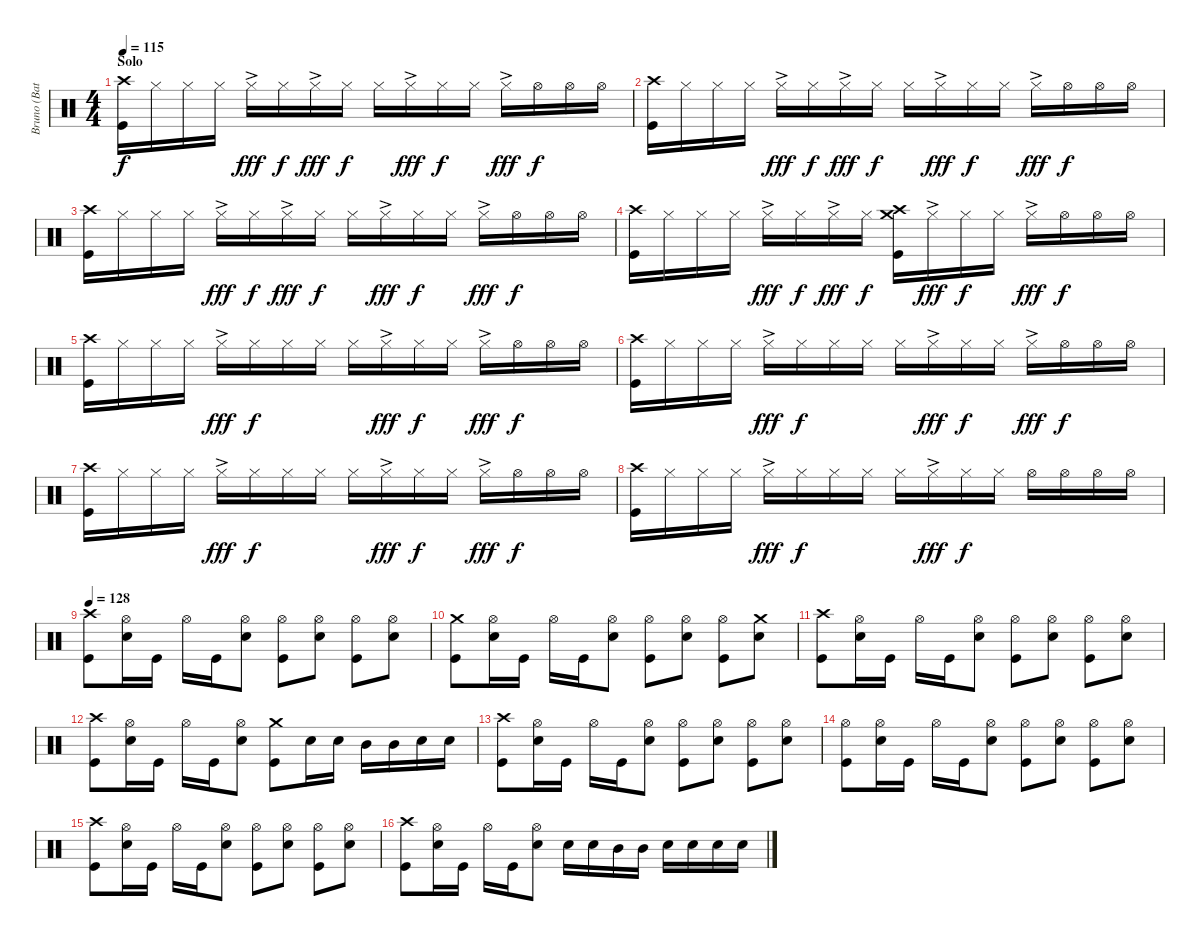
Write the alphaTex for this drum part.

\track ("Bruno (Bateria)" "Bruno (Bat") {instrument percussion}
\staff {score}
\articulation defaults
\ts (4 4)
\section ("" "Solo")
\tempo 115
\clef neutral
\ks c
("Crash high (hit)" "Kick (hit)").16{dy f} "Hi-Hat (closed)".16 "Hi-Hat (closed)".16 "Hi-Hat (closed)".16 "Hi-Hat (closed)"{ac}.16{dy fff} "Hi-Hat (closed)".16{dy f} "Hi-Hat (closed)"{ac}.16{dy fff} "Hi-Hat (closed)".16{dy f} "Hi-Hat (closed)".16 "Hi-Hat (closed)"{ac}.16{dy fff} "Hi-Hat (closed)".16{dy f} "Hi-Hat (closed)".16 "Hi-Hat (closed)"{ac}.16{dy fff} "Hi-Hat (open)".16{dy f} "Hi-Hat (open)".16 "Hi-Hat (open)".16 |
("Crash high (hit)" "Kick (hit)").16 "Hi-Hat (closed)".16 "Hi-Hat (closed)".16 "Hi-Hat (closed)".16 "Hi-Hat (closed)"{ac}.16{dy fff} "Hi-Hat (closed)".16{dy f} "Hi-Hat (closed)"{ac}.16{dy fff} "Hi-Hat (closed)".16{dy f} "Hi-Hat (closed)".16 "Hi-Hat (closed)"{ac}.16{dy fff} "Hi-Hat (closed)".16{dy f} "Hi-Hat (closed)".16 "Hi-Hat (closed)"{ac}.16{dy fff} "Hi-Hat (open)".16{dy f} "Hi-Hat (open)".16 "Hi-Hat (open)".16 |
("Crash high (hit)" "Kick (hit)").16 "Hi-Hat (closed)".16 "Hi-Hat (closed)".16 "Hi-Hat (closed)".16 "Hi-Hat (closed)"{ac}.16{dy fff} "Hi-Hat (closed)".16{dy f} "Hi-Hat (closed)"{ac}.16{dy fff} "Hi-Hat (closed)".16{dy f} "Hi-Hat (closed)".16 "Hi-Hat (closed)"{ac}.16{dy fff} "Hi-Hat (closed)".16{dy f} "Hi-Hat (closed)".16 "Hi-Hat (closed)"{ac}.16{dy fff} "Hi-Hat (open)".16{dy f} "Hi-Hat (open)".16 "Hi-Hat (open)".16 |
("Crash high (hit)" "Kick (hit)").16 "Hi-Hat (closed)".16 "Hi-Hat (closed)".16 "Hi-Hat (closed)".16 "Hi-Hat (closed)"{ac}.16{dy fff} "Hi-Hat (closed)".16{dy f} "Hi-Hat (closed)"{ac}.16{dy fff} "Hi-Hat (closed)".16{dy f} ("Crash high (hit)" "Crash medium (hit)" "Kick (hit)").16 "Hi-Hat (closed)"{ac}.16{dy fff} "Hi-Hat (closed)".16{dy f} "Hi-Hat (closed)".16 "Hi-Hat (closed)"{ac}.16{dy fff} "Hi-Hat (open)".16{dy f} "Hi-Hat (open)".16 "Hi-Hat (open)".16 |
("Crash high (hit)" "Kick (hit)").16 "Hi-Hat (closed)".16 "Hi-Hat (closed)".16 "Hi-Hat (closed)".16 "Hi-Hat (closed)"{ac}.16{dy fff} "Hi-Hat (closed)".16{dy f} "Hi-Hat (closed)".16 "Hi-Hat (closed)".16 "Hi-Hat (closed)".16 "Hi-Hat (closed)"{ac}.16{dy fff} "Hi-Hat (closed)".16{dy f} "Hi-Hat (closed)".16 "Hi-Hat (closed)"{ac}.16{dy fff} "Hi-Hat (open)".16{dy f} "Hi-Hat (open)".16 "Hi-Hat (open)".16 |
("Crash high (hit)" "Kick (hit)").16 "Hi-Hat (closed)".16 "Hi-Hat (closed)".16 "Hi-Hat (closed)".16 "Hi-Hat (closed)"{ac}.16{dy fff} "Hi-Hat (closed)".16{dy f} "Hi-Hat (closed)".16 "Hi-Hat (closed)".16 "Hi-Hat (closed)".16 "Hi-Hat (closed)"{ac}.16{dy fff} "Hi-Hat (closed)".16{dy f} "Hi-Hat (closed)".16 "Hi-Hat (closed)"{ac}.16{dy fff} "Hi-Hat (open)".16{dy f} "Hi-Hat (open)".16 "Hi-Hat (open)".16 |
("Crash high (hit)" "Kick (hit)").16 "Hi-Hat (closed)".16 "Hi-Hat (closed)".16 "Hi-Hat (closed)".16 "Hi-Hat (closed)"{ac}.16{dy fff} "Hi-Hat (closed)".16{dy f} "Hi-Hat (closed)".16 "Hi-Hat (closed)".16 "Hi-Hat (closed)".16 "Hi-Hat (closed)"{ac}.16{dy fff} "Hi-Hat (closed)".16{dy f} "Hi-Hat (closed)".16 "Hi-Hat (closed)"{ac}.16{dy fff} "Hi-Hat (open)".16{dy f} "Hi-Hat (open)".16 "Hi-Hat (open)".16 |
("Crash high (hit)" "Kick (hit)").16 "Hi-Hat (closed)".16 "Hi-Hat (closed)".16 "Hi-Hat (closed)".16 "Hi-Hat (closed)"{ac}.16{dy fff} "Hi-Hat (closed)".16{dy f} "Hi-Hat (closed)".16 "Hi-Hat (closed)".16 "Hi-Hat (closed)".16 "Hi-Hat (closed)"{ac}.16{dy fff} "Hi-Hat (closed)".16{dy f} "Hi-Hat (closed)".16 "Hi-Hat (open)".16 "Hi-Hat (open)".16 "Hi-Hat (open)".16 "Hi-Hat (open)".16 |
\tempo 128
("Crash high (hit)" "Kick (hit)").8 ("Hi-Hat (open)" "Electric Snare (hit)").16 "Kick (hit)".16 "Hi-Hat (open)".16 "Kick (hit)".16 ("Hi-Hat (open)" "Electric Snare (hit)").8 ("Hi-Hat (open)" "Kick (hit)").8 ("Hi-Hat (open)" "Electric Snare (hit)").8 ("Hi-Hat (open)" "Kick (hit)").8 ("Hi-Hat (open)" "Electric Snare (hit)").8 |
("Crash medium (hit)" "Kick (hit)").8 ("Hi-Hat (open)" "Electric Snare (hit)").16 "Kick (hit)".16 "Hi-Hat (open)".16 "Kick (hit)".16 ("Hi-Hat (open)" "Electric Snare (hit)").8 ("Hi-Hat (open)" "Kick (hit)").8 ("Hi-Hat (open)" "Electric Snare (hit)").8 ("Hi-Hat (open)" "Kick (hit)").8 ("Crash medium (hit)" "Electric Snare (hit)").8 |
("Crash high (hit)" "Kick (hit)").8 ("Hi-Hat (open)" "Electric Snare (hit)").16 "Kick (hit)".16 "Hi-Hat (open)".16 "Kick (hit)".16 ("Hi-Hat (open)" "Electric Snare (hit)").8 ("Hi-Hat (open)" "Kick (hit)").8 ("Hi-Hat (open)" "Electric Snare (hit)").8 ("Hi-Hat (open)" "Kick (hit)").8 ("Hi-Hat (open)" "Electric Snare (hit)").8 |
("Crash high (hit)" "Kick (hit)").8 ("Hi-Hat (open)" "Electric Snare (hit)").16 "Kick (hit)".16 "Hi-Hat (open)".16 "Kick (hit)".16 ("Hi-Hat (open)" "Electric Snare (hit)").8 ("Crash medium (hit)" "Kick (hit)").8 "Electric Snare (hit)".16 "Electric Snare (hit)".16 "Mid Tom (hit)".16 "Mid Tom (hit)".16 "Electric Snare (hit)".16 "Electric Snare (hit)".16 |
("Crash high (hit)" "Kick (hit)").8 ("Hi-Hat (open)" "Electric Snare (hit)").16 "Kick (hit)".16 "Hi-Hat (open)".16 "Kick (hit)".16 ("Hi-Hat (open)" "Electric Snare (hit)").8 ("Hi-Hat (open)" "Kick (hit)").8 ("Hi-Hat (open)" "Electric Snare (hit)").8 ("Hi-Hat (open)" "Kick (hit)").8 ("Hi-Hat (open)" "Electric Snare (hit)").8 |
("Hi-Hat (open)" "Kick (hit)").8 ("Hi-Hat (open)" "Electric Snare (hit)").16 "Kick (hit)".16 "Hi-Hat (open)".16 "Kick (hit)".16 ("Hi-Hat (open)" "Electric Snare (hit)").8 ("Hi-Hat (open)" "Kick (hit)").8 ("Hi-Hat (open)" "Electric Snare (hit)").8 ("Hi-Hat (open)" "Kick (hit)").8 ("Hi-Hat (open)" "Electric Snare (hit)").8 |
("Crash high (hit)" "Kick (hit)").8 ("Hi-Hat (open)" "Electric Snare (hit)").16 "Kick (hit)".16 "Hi-Hat (open)".16 "Kick (hit)".16 ("Hi-Hat (open)" "Electric Snare (hit)").8 ("Hi-Hat (open)" "Kick (hit)").8 ("Hi-Hat (open)" "Electric Snare (hit)").8 ("Hi-Hat (open)" "Kick (hit)").8 ("Hi-Hat (open)" "Electric Snare (hit)").8 |
("Crash high (hit)" "Kick (hit)").8 ("Hi-Hat (open)" "Electric Snare (hit)").16 "Kick (hit)".16 "Hi-Hat (open)".16 "Kick (hit)".16 ("Hi-Hat (open)" "Electric Snare (hit)").8 "Electric Snare (hit)".16 "Electric Snare (hit)".16 "Mid Tom (hit)".16 "Mid Tom (hit)".16 "Electric Snare (hit)".16 "Electric Snare (hit)".16 "Electric Snare (hit)".16 "Electric Snare (hit)".16
